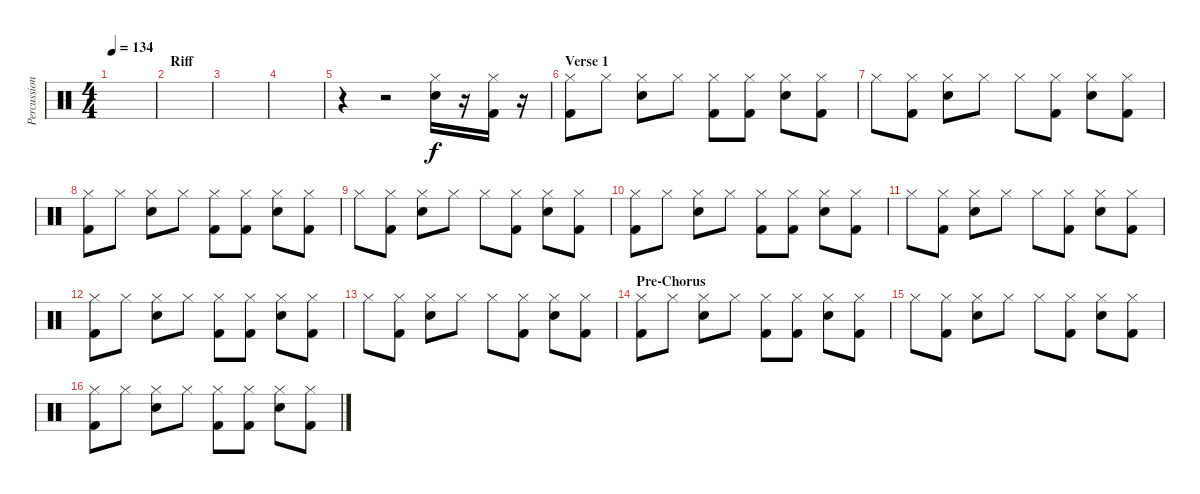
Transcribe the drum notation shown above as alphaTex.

\track ("Percussion" "Percussion") {instrument percussion}
\staff {score}
\articulation defaults
\ts (4 4)
\tempo 134
\clef neutral
\ks c
|
\section ("" "Riff")
|
|
|
r.4 r.2 ("Hi-Hat (closed)" "Snare (hit) 2").16 r.16 ("Hi-Hat (closed)" "Kick (hit) 2").16 r.16 |
\section ("" "Verse 1")
("Hi-Hat (closed)" "Kick (hit) 2").8 "Hi-Hat (closed)".8 ("Hi-Hat (closed)" "Snare (hit) 2").8 "Hi-Hat (closed)".8 ("Hi-Hat (closed)" "Kick (hit) 2").8 ("Hi-Hat (closed)" "Kick (hit) 2").8 ("Hi-Hat (closed)" "Snare (hit) 2").8 ("Hi-Hat (closed)" "Kick (hit) 2").8 |
"Hi-Hat (closed)".8 ("Hi-Hat (closed)" "Kick (hit) 2").8 ("Hi-Hat (closed)" "Snare (hit) 2").8 "Hi-Hat (closed)".8 "Hi-Hat (closed)".8 ("Hi-Hat (closed)" "Kick (hit) 2").8 ("Hi-Hat (closed)" "Snare (hit) 2").8 ("Hi-Hat (closed)" "Kick (hit) 2").8 |
("Hi-Hat (closed)" "Kick (hit) 2").8 "Hi-Hat (closed)".8 ("Hi-Hat (closed)" "Snare (hit) 2").8 "Hi-Hat (closed)".8 ("Hi-Hat (closed)" "Kick (hit) 2").8 ("Hi-Hat (closed)" "Kick (hit) 2").8 ("Hi-Hat (closed)" "Snare (hit) 2").8 ("Hi-Hat (closed)" "Kick (hit) 2").8 |
"Hi-Hat (closed)".8 ("Hi-Hat (closed)" "Kick (hit) 2").8 ("Hi-Hat (closed)" "Snare (hit) 2").8 "Hi-Hat (closed)".8 "Hi-Hat (closed)".8 ("Hi-Hat (closed)" "Kick (hit) 2").8 ("Hi-Hat (closed)" "Snare (hit) 2").8 ("Hi-Hat (closed)" "Kick (hit) 2").8 |
("Hi-Hat (closed)" "Kick (hit) 2").8 "Hi-Hat (closed)".8 ("Hi-Hat (closed)" "Snare (hit) 2").8 "Hi-Hat (closed)".8 ("Hi-Hat (closed)" "Kick (hit) 2").8 ("Hi-Hat (closed)" "Kick (hit) 2").8 ("Hi-Hat (closed)" "Snare (hit) 2").8 ("Hi-Hat (closed)" "Kick (hit) 2").8 |
"Hi-Hat (closed)".8 ("Hi-Hat (closed)" "Kick (hit) 2").8 ("Hi-Hat (closed)" "Snare (hit) 2").8 "Hi-Hat (closed)".8 "Hi-Hat (closed)".8 ("Hi-Hat (closed)" "Kick (hit) 2").8 ("Hi-Hat (closed)" "Snare (hit) 2").8 ("Hi-Hat (closed)" "Kick (hit) 2").8 |
("Hi-Hat (closed)" "Kick (hit) 2").8 "Hi-Hat (closed)".8 ("Hi-Hat (closed)" "Snare (hit) 2").8 "Hi-Hat (closed)".8 ("Hi-Hat (closed)" "Kick (hit) 2").8 ("Hi-Hat (closed)" "Kick (hit) 2").8 ("Hi-Hat (closed)" "Snare (hit) 2").8 ("Hi-Hat (closed)" "Kick (hit) 2").8 |
"Hi-Hat (closed)".8 ("Hi-Hat (closed)" "Kick (hit) 2").8 ("Hi-Hat (closed)" "Snare (hit) 2").8 "Hi-Hat (closed)".8 "Hi-Hat (closed)".8 ("Hi-Hat (closed)" "Kick (hit) 2").8 ("Hi-Hat (closed)" "Snare (hit) 2").8 ("Hi-Hat (closed)" "Kick (hit) 2").8 |
\section ("" "Pre-Chorus")
("Hi-Hat (closed)" "Kick (hit) 2").8 "Hi-Hat (closed)".8 ("Hi-Hat (closed)" "Snare (hit) 2").8 "Hi-Hat (closed)".8 ("Hi-Hat (closed)" "Kick (hit) 2").8 ("Hi-Hat (closed)" "Kick (hit) 2").8 ("Hi-Hat (closed)" "Snare (hit) 2").8 ("Hi-Hat (closed)" "Kick (hit) 2").8 |
"Hi-Hat (closed)".8 ("Hi-Hat (closed)" "Kick (hit) 2").8 ("Hi-Hat (closed)" "Snare (hit) 2").8 "Hi-Hat (closed)".8 "Hi-Hat (closed)".8 ("Hi-Hat (closed)" "Kick (hit) 2").8 ("Hi-Hat (closed)" "Snare (hit) 2").8 ("Hi-Hat (closed)" "Kick (hit) 2").8 |
("Hi-Hat (closed)" "Kick (hit) 2").8 "Hi-Hat (closed)".8 ("Hi-Hat (closed)" "Snare (hit) 2").8 "Hi-Hat (closed)".8 ("Hi-Hat (closed)" "Kick (hit) 2").8 ("Hi-Hat (closed)" "Kick (hit) 2").8 ("Hi-Hat (closed)" "Snare (hit) 2").8 ("Hi-Hat (closed)" "Kick (hit) 2").8
